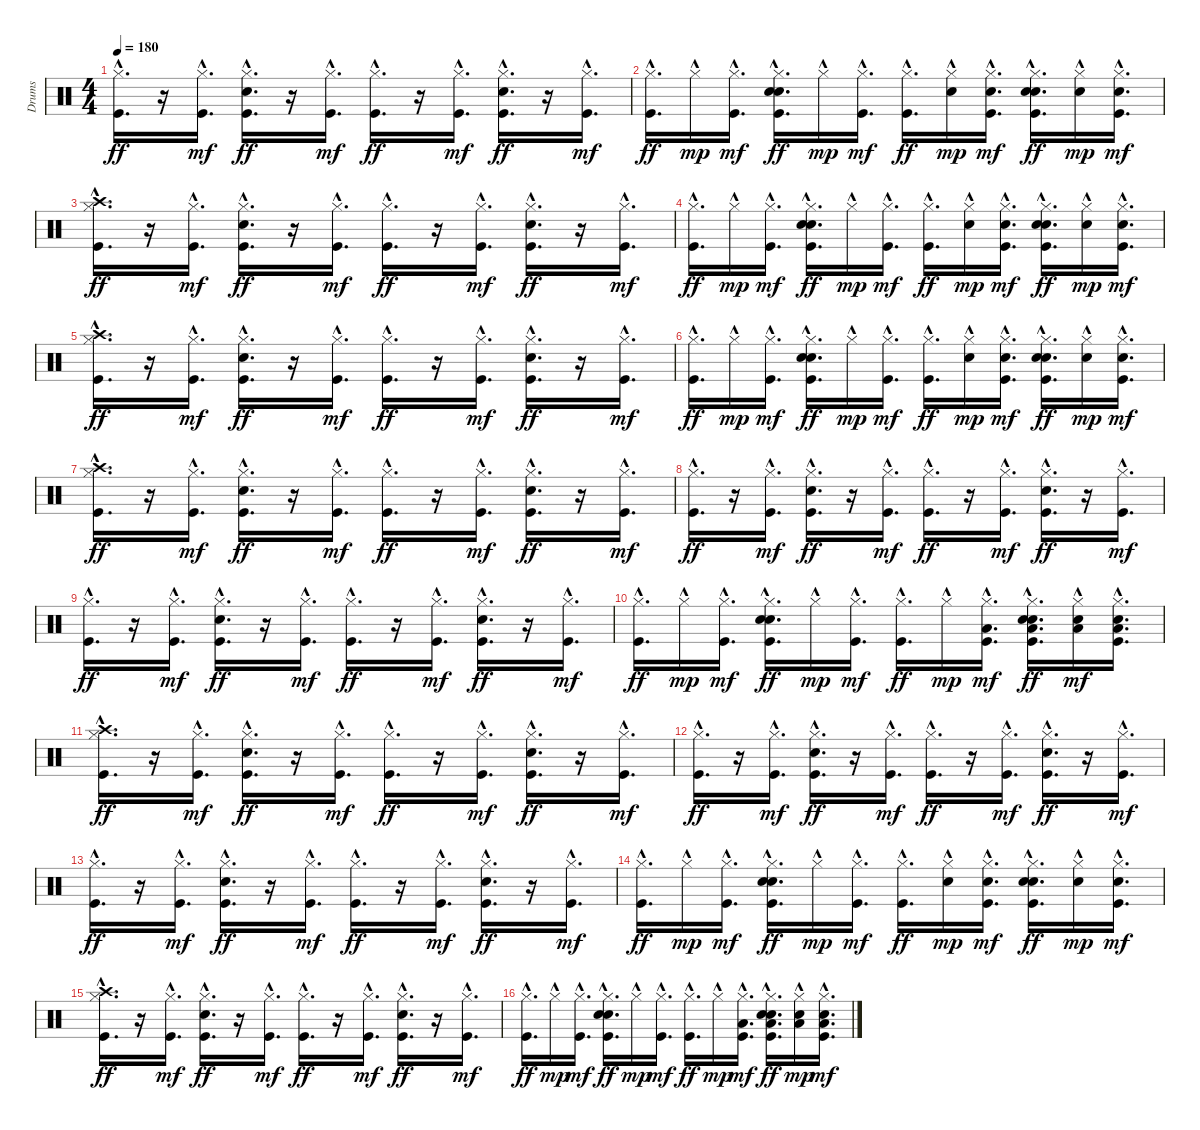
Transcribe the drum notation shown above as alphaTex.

\track ("Drums" "Drums") {instrument percussion}
\staff {score}
\articulation defaults
\ts (4 4)
\tempo 180
\clef neutral
\ks c
("Kick (hit)"{hac} "Hi-Hat (closed)"{hac}).16{d dy ff} r.16 ("Kick (hit)"{hac} "Hi-Hat (closed)"{hac}).16{d dy mf} ("Hi-Hat (closed)"{hac} "Snare (hit) 2"{hac} "Kick (hit)"{hac}).16{d dy ff} r.16 ("Hi-Hat (closed)"{hac} "Kick (hit)"{hac}).16{d dy mf} ("Kick (hit)"{hac} "Hi-Hat (closed)"{hac}).16{d dy ff} r.16 ("Kick (hit)"{hac} "Hi-Hat (closed)"{hac}).16{d dy mf} ("Hi-Hat (closed)"{hac} "Snare (hit) 2"{hac} "Kick (hit)"{hac}).16{d dy ff} r.16 ("Kick (hit)"{hac} "Hi-Hat (closed)"{hac}).16{d dy mf} |
("Kick (hit)"{hac} "Hi-Hat (closed)"{hac}).16{d dy ff} "Hi-Hat (closed)"{hac}.16{dy mp} ("Kick (hit)"{hac} "Hi-Hat (closed)"{hac}).16{d dy mf} ("Hand Clap (hit)"{hac} "Snare (hit) 2"{hac} "Kick (hit)"{hac} "Hi-Hat (closed)"{hac}).16{d dy ff} "Hi-Hat (closed)"{hac}.16{dy mp} ("Kick (hit)"{hac} "Hi-Hat (closed)"{hac}).16{d dy mf} ("Kick (hit)"{hac} "Hi-Hat (closed)"{hac}).16{d dy ff} ("Snare (hit) 2"{hac} "Hi-Hat (closed)"{hac}).16{dy mp} ("Hi-Hat (closed)"{hac} "Snare (hit) 2"{hac} "Kick (hit)"{hac}).16{d dy mf} ("Kick (hit)"{hac} "Hand Clap (hit)"{hac} "Hi-Hat (closed)"{hac} "Snare (hit) 2"{hac}).16{d dy ff} ("Snare (hit) 2"{hac} "Hi-Hat (closed)"{hac}).16{dy mp} ("Kick (hit)"{hac} "Hi-Hat (closed)"{hac} "Snare (hit) 2"{hac}).16{d dy mf} |
("Kick (hit)"{hac} "Hi-Hat (closed)"{hac} "Crash high (hit)"{hac}).16{d dy ff} r.16 ("Kick (hit)"{hac} "Hi-Hat (closed)"{hac}).16{d dy mf} ("Hi-Hat (closed)"{hac} "Snare (hit) 2"{hac} "Kick (hit)"{hac}).16{d dy ff} r.16 ("Kick (hit)"{hac} "Hi-Hat (closed)"{hac}).16{d dy mf} ("Kick (hit)"{hac} "Hi-Hat (closed)"{hac}).16{d dy ff} r.16 ("Kick (hit)"{hac} "Hi-Hat (closed)"{hac}).16{d dy mf} ("Kick (hit)"{hac} "Snare (hit) 2"{hac} "Hi-Hat (closed)"{hac}).16{d dy ff} r.16 ("Hi-Hat (closed)"{hac} "Kick (hit)"{hac}).16{d dy mf} |
("Kick (hit)"{hac} "Hi-Hat (closed)"{hac}).16{d dy ff} "Hi-Hat (closed)"{hac}.16{dy mp} ("Kick (hit)"{hac} "Hi-Hat (closed)"{hac}).16{d dy mf} ("Hand Clap (hit)"{hac} "Snare (hit) 2"{hac} "Kick (hit)"{hac} "Hi-Hat (closed)"{hac}).16{d dy ff} "Hi-Hat (closed)"{hac}.16{dy mp} ("Kick (hit)"{hac} "Hi-Hat (closed)"{hac}).16{d dy mf} ("Kick (hit)"{hac} "Hi-Hat (closed)"{hac}).16{d dy ff} ("Snare (hit) 2"{hac} "Hi-Hat (closed)"{hac}).16{dy mp} ("Kick (hit)"{hac} "Hi-Hat (closed)"{hac} "Snare (hit) 2"{hac}).16{d dy mf} ("Kick (hit)"{hac} "Hand Clap (hit)"{hac} "Hi-Hat (closed)"{hac} "Snare (hit) 2"{hac}).16{d dy ff} ("Snare (hit) 2"{hac} "Hi-Hat (closed)"{hac}).16{dy mp} ("Kick (hit)"{hac} "Hi-Hat (closed)"{hac} "Snare (hit) 2"{hac}).16{d dy mf} |
("Crash high (hit)"{hac} "Hi-Hat (closed)"{hac} "Kick (hit)"{hac}).16{d dy ff} r.16 ("Kick (hit)"{hac} "Hi-Hat (closed)"{hac}).16{d dy mf} ("Kick (hit)"{hac} "Snare (hit) 2"{hac} "Hi-Hat (closed)"{hac}).16{d dy ff} r.16 ("Kick (hit)"{hac} "Hi-Hat (closed)"{hac}).16{d dy mf} ("Hi-Hat (closed)"{hac} "Kick (hit)"{hac}).16{d dy ff} r.16 ("Kick (hit)"{hac} "Hi-Hat (closed)"{hac}).16{d dy mf} ("Kick (hit)"{hac} "Snare (hit) 2"{hac} "Hi-Hat (closed)"{hac}).16{d dy ff} r.16 ("Kick (hit)"{hac} "Hi-Hat (closed)"{hac}).16{d dy mf} |
("Kick (hit)"{hac} "Hi-Hat (closed)"{hac}).16{d dy ff} "Hi-Hat (closed)"{hac}.16{dy mp} ("Kick (hit)"{hac} "Hi-Hat (closed)"{hac}).16{d dy mf} ("Kick (hit)"{hac} "Snare (hit) 2"{hac} "Hi-Hat (closed)"{hac} "Hand Clap (hit)"{hac}).16{d dy ff} "Hi-Hat (closed)"{hac}.16{dy mp} ("Hi-Hat (closed)"{hac} "Kick (hit)"{hac}).16{d dy mf} ("Kick (hit)"{hac} "Hi-Hat (closed)"{hac}).16{d dy ff} ("Snare (hit) 2"{hac} "Hi-Hat (closed)"{hac}).16{dy mp} ("Hi-Hat (closed)"{hac} "Snare (hit) 2"{hac} "Kick (hit)"{hac}).16{d dy mf} ("Hi-Hat (closed)"{hac} "Snare (hit) 2"{hac} "Kick (hit)"{hac} "Hand Clap (hit)"{hac}).16{d dy ff} ("Snare (hit) 2"{hac} "Hi-Hat (closed)"{hac}).16{dy mp} ("Kick (hit)"{hac} "Snare (hit) 2"{hac} "Hi-Hat (closed)"{hac}).16{d dy mf} |
("Hi-Hat (closed)"{hac} "Crash high (hit)"{hac} "Kick (hit)"{hac}).16{d dy ff} r.16 ("Kick (hit)"{hac} "Hi-Hat (closed)"{hac}).16{d dy mf} ("Kick (hit)"{hac} "Snare (hit) 2"{hac} "Hi-Hat (closed)"{hac}).16{d dy ff} r.16 ("Kick (hit)"{hac} "Hi-Hat (closed)"{hac}).16{d dy mf} ("Kick (hit)"{hac} "Hi-Hat (closed)"{hac}).16{d dy ff} r.16 ("Kick (hit)"{hac} "Hi-Hat (closed)"{hac}).16{d dy mf} ("Hi-Hat (closed)"{hac} "Snare (hit) 2"{hac} "Kick (hit)"{hac}).16{d dy ff} r.16 ("Kick (hit)"{hac} "Hi-Hat (closed)"{hac}).16{d dy mf} |
("Hi-Hat (closed)"{hac} "Kick (hit)"{hac}).16{d dy ff} r.16 ("Kick (hit)"{hac} "Hi-Hat (closed)"{hac}).16{d dy mf} ("Hi-Hat (closed)"{hac} "Snare (hit) 2"{hac} "Kick (hit)"{hac}).16{d dy ff} r.16 ("Kick (hit)"{hac} "Hi-Hat (closed)"{hac}).16{d dy mf} ("Hi-Hat (closed)"{hac} "Kick (hit)"{hac}).16{d dy ff} r.16 ("Hi-Hat (closed)"{hac} "Kick (hit)"{hac}).16{d dy mf} ("Hi-Hat (closed)"{hac} "Snare (hit) 2"{hac} "Kick (hit)"{hac}).16{d dy ff} r.16 ("Kick (hit)"{hac} "Hi-Hat (closed)"{hac}).16{d dy mf} |
("Kick (hit)"{hac} "Hi-Hat (closed)"{hac}).16{d dy ff} r.16 ("Hi-Hat (closed)"{hac} "Kick (hit)"{hac}).16{d dy mf} ("Hi-Hat (closed)"{hac} "Snare (hit) 2"{hac} "Kick (hit)"{hac}).16{d dy ff} r.16 ("Kick (hit)"{hac} "Hi-Hat (closed)"{hac}).16{d dy mf} ("Kick (hit)"{hac} "Hi-Hat (closed)"{hac}).16{d dy ff} r.16 ("Kick (hit)"{hac} "Hi-Hat (closed)"{hac}).16{d dy mf} ("Kick (hit)"{hac} "Snare (hit) 2"{hac} "Hi-Hat (closed)"{hac}).16{d dy ff} r.16 ("Kick (hit)"{hac} "Hi-Hat (closed)"{hac}).16{d dy mf} |
("Kick (hit)"{hac} "Hi-Hat (closed)"{hac}).16{d dy ff} "Hi-Hat (closed)"{hac}.16{dy mp} ("Hi-Hat (closed)"{hac} "Kick (hit)"{hac}).16{d dy mf} ("Hi-Hat (closed)"{hac} "Hand Clap (hit)"{hac} "Kick (hit)"{hac} "Snare (hit) 2"{hac}).16{d dy ff} "Hi-Hat (closed)"{hac}.16{dy mp} ("Kick (hit)"{hac} "Hi-Hat (closed)"{hac}).16{d dy mf} ("Kick (hit)"{hac} "Hi-Hat (closed)"{hac}).16{d dy ff} "Hi-Hat (closed)"{hac}.16{dy mp} ("Low Tom (hit)"{hac} "Hi-Hat (closed)"{hac} "Kick (hit)"{hac}).16{d dy mf} ("Kick (hit)"{hac} "Hand Clap (hit)"{hac} "Hi-Hat (closed)"{hac} "Snare (hit) 2"{hac} "Low Tom (hit)"{hac}).16{d dy ff} ("Snare (hit) 2"{hac} "Hi-Hat (closed)"{hac} "Low Tom (hit)"{hac}).16{dy mf} ("Kick (hit)"{hac} "Snare (hit) 2"{hac} "Hi-Hat (closed)"{hac} "Low Tom (hit)"{hac}).16{d} |
("Crash high (hit)"{hac} "Hi-Hat (closed)"{hac} "Kick (hit)"{hac}).16{d dy ff} r.16 ("Kick (hit)"{hac} "Hi-Hat (closed)"{hac}).16{d dy mf} ("Hi-Hat (closed)"{hac} "Snare (hit) 2"{hac} "Kick (hit)"{hac}).16{d dy ff} r.16 ("Kick (hit)"{hac} "Hi-Hat (closed)"{hac}).16{d dy mf} ("Hi-Hat (closed)"{hac} "Kick (hit)"{hac}).16{d dy ff} r.16 ("Kick (hit)"{hac} "Hi-Hat (closed)"{hac}).16{d dy mf} ("Hi-Hat (closed)"{hac} "Snare (hit) 2"{hac} "Kick (hit)"{hac}).16{d dy ff} r.16 ("Kick (hit)"{hac} "Hi-Hat (closed)"{hac}).16{d dy mf} |
("Hi-Hat (closed)"{hac} "Kick (hit)"{hac}).16{d dy ff} r.16 ("Kick (hit)"{hac} "Hi-Hat (closed)"{hac}).16{d dy mf} ("Hi-Hat (closed)"{hac} "Snare (hit) 2"{hac} "Kick (hit)"{hac}).16{d dy ff} r.16 ("Kick (hit)"{hac} "Hi-Hat (closed)"{hac}).16{d dy mf} ("Kick (hit)"{hac} "Hi-Hat (closed)"{hac}).16{d dy ff} r.16 ("Kick (hit)"{hac} "Hi-Hat (closed)"{hac}).16{d dy mf} ("Snare (hit) 2"{hac} "Hi-Hat (closed)"{hac} "Kick (hit)"{hac}).16{d dy ff} r.16 ("Kick (hit)"{hac} "Hi-Hat (closed)"{hac}).16{d dy mf} |
("Kick (hit)"{hac} "Hi-Hat (closed)"{hac}).16{d dy ff} r.16 ("Kick (hit)"{hac} "Hi-Hat (closed)"{hac}).16{d dy mf} ("Hi-Hat (closed)"{hac} "Snare (hit) 2"{hac} "Kick (hit)"{hac}).16{d dy ff} r.16 ("Kick (hit)"{hac} "Hi-Hat (closed)"{hac}).16{d dy mf} ("Kick (hit)"{hac} "Hi-Hat (closed)"{hac}).16{d dy ff} r.16 ("Kick (hit)"{hac} "Hi-Hat (closed)"{hac}).16{d dy mf} ("Kick (hit)"{hac} "Hi-Hat (closed)"{hac} "Snare (hit) 2"{hac}).16{d dy ff} r.16 ("Kick (hit)"{hac} "Hi-Hat (closed)"{hac}).16{d dy mf} |
("Kick (hit)"{hac} "Hi-Hat (closed)"{hac}).16{d dy ff} "Hi-Hat (closed)"{hac}.16{dy mp} ("Kick (hit)"{hac} "Hi-Hat (closed)"{hac}).16{d dy mf} ("Hi-Hat (closed)"{hac} "Hand Clap (hit)"{hac} "Kick (hit)"{hac} "Snare (hit) 2"{hac}).16{d dy ff} "Hi-Hat (closed)"{hac}.16{dy mp} ("Kick (hit)"{hac} "Hi-Hat (closed)"{hac}).16{d dy mf} ("Kick (hit)"{hac} "Hi-Hat (closed)"{hac}).16{d dy ff} ("Snare (hit) 2"{hac} "Hi-Hat (closed)"{hac}).16{dy mp} ("Snare (hit) 2"{hac} "Kick (hit)"{hac} "Hi-Hat (closed)"{hac}).16{d dy mf} ("Hi-Hat (closed)"{hac} "Snare (hit) 2"{hac} "Kick (hit)"{hac} "Hand Clap (hit)"{hac}).16{d dy ff} ("Snare (hit) 2"{hac} "Hi-Hat (closed)"{hac}).16{dy mp} ("Hi-Hat (closed)"{hac} "Snare (hit) 2"{hac} "Kick (hit)"{hac}).16{d dy mf} |
("Crash high (hit)"{hac} "Hi-Hat (closed)"{hac} "Kick (hit)"{hac}).16{d dy ff} r.16 ("Kick (hit)"{hac} "Hi-Hat (closed)"{hac}).16{d dy mf} ("Kick (hit)"{hac} "Hi-Hat (closed)"{hac} "Snare (hit) 2"{hac}).16{d dy ff} r.16 ("Kick (hit)"{hac} "Hi-Hat (closed)"{hac}).16{d dy mf} ("Kick (hit)"{hac} "Hi-Hat (closed)"{hac}).16{d dy ff} r.16 ("Kick (hit)"{hac} "Hi-Hat (closed)"{hac}).16{d dy mf} ("Kick (hit)"{hac} "Hi-Hat (closed)"{hac} "Snare (hit) 2"{hac}).16{d dy ff} r.16 ("Hi-Hat (closed)"{hac} "Kick (hit)"{hac}).16{d dy mf} |
("Kick (hit)"{hac} "Hi-Hat (closed)"{hac}).16{d dy ff} "Hi-Hat (closed)"{hac}.16{dy mp} ("Kick (hit)"{hac} "Hi-Hat (closed)"{hac}).16{d dy mf} ("Hand Clap (hit)"{hac} "Hi-Hat (closed)"{hac} "Kick (hit)"{hac} "Snare (hit) 2"{hac}).16{d dy ff} "Hi-Hat (closed)"{hac}.16{dy mp} ("Kick (hit)"{hac} "Hi-Hat (closed)"{hac}).16{d dy mf} ("Kick (hit)"{hac} "Hi-Hat (closed)"{hac}).16{d dy ff} "Hi-Hat (closed)"{hac}.16{dy mp} ("Low Tom (hit)"{hac} "Hi-Hat (closed)"{hac} "Kick (hit)"{hac}).16{d dy mf} ("Kick (hit)"{hac} "Low Tom (hit)"{hac} "Hand Clap (hit)"{hac} "Snare (hit) 2"{hac} "Hi-Hat (closed)"{hac}).16{d dy ff} ("Low Tom (hit)"{hac} "Hi-Hat (closed)"{hac} "Snare (hit) 2"{hac}).16{dy mp} ("Snare (hit) 2"{hac} "Kick (hit)"{hac} "Hi-Hat (closed)"{hac} "Low Tom (hit)"{hac}).16{d dy mf}
